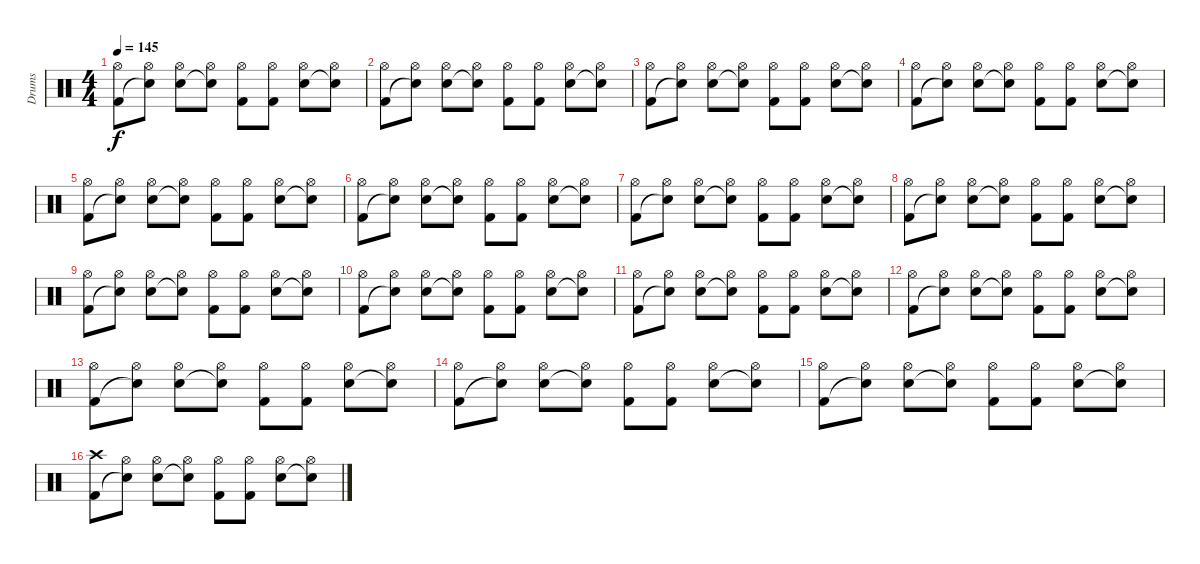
\track ("Drums" "Drums") {instrument percussion}
\staff {score}
\articulation defaults
\ts (4 4)
\tempo 145
\clef neutral
\ks c
("Hi-Hat (open)" "Kick (hit) 2").8{dy f} ("Hi-Hat (open)" "Snare (hit)"{t}).8 ("Hi-Hat (open)" "Electric Snare (hit)").8 ("Hi-Hat (open)" "Snare (hit)"{t}).8 ("Hi-Hat (open)" "Kick (hit) 2").8 ("Hi-Hat (open)" "Kick (hit) 2").8 ("Hi-Hat (open)" "Electric Snare (hit)").8 ("Hi-Hat (open)" "Snare (hit)"{t}).8 |
("Hi-Hat (open)" "Kick (hit) 2").8 ("Hi-Hat (open)" "Snare (hit)"{t}).8 ("Hi-Hat (open)" "Electric Snare (hit)").8 ("Hi-Hat (open)" "Snare (hit)"{t}).8 ("Hi-Hat (open)" "Kick (hit) 2").8 ("Hi-Hat (open)" "Kick (hit) 2").8 ("Hi-Hat (open)" "Electric Snare (hit)").8 ("Hi-Hat (open)" "Snare (hit)"{t}).8 |
("Hi-Hat (open)" "Kick (hit) 2").8 ("Hi-Hat (open)" "Snare (hit)"{t}).8 ("Hi-Hat (open)" "Electric Snare (hit)").8 ("Hi-Hat (open)" "Snare (hit)"{t}).8 ("Hi-Hat (open)" "Kick (hit) 2").8 ("Hi-Hat (open)" "Kick (hit) 2").8 ("Hi-Hat (open)" "Electric Snare (hit)").8 ("Hi-Hat (open)" "Snare (hit)"{t}).8 |
("Hi-Hat (open)" "Kick (hit) 2").8 ("Hi-Hat (open)" "Snare (hit)"{t}).8 ("Hi-Hat (open)" "Electric Snare (hit)").8 ("Hi-Hat (open)" "Snare (hit)"{t}).8 ("Hi-Hat (open)" "Kick (hit) 2").8 ("Hi-Hat (open)" "Kick (hit) 2").8 ("Hi-Hat (open)" "Electric Snare (hit)").8 ("Hi-Hat (open)" "Snare (hit)"{t}).8 |
("Hi-Hat (open)" "Kick (hit) 2").8 ("Hi-Hat (open)" "Snare (hit)"{t}).8 ("Hi-Hat (open)" "Electric Snare (hit)").8 ("Hi-Hat (open)" "Snare (hit)"{t}).8 ("Hi-Hat (open)" "Kick (hit) 2").8 ("Hi-Hat (open)" "Kick (hit) 2").8 ("Hi-Hat (open)" "Electric Snare (hit)").8 ("Hi-Hat (open)" "Snare (hit)"{t}).8 |
("Hi-Hat (open)" "Kick (hit) 2").8 ("Hi-Hat (open)" "Snare (hit)"{t}).8 ("Hi-Hat (open)" "Electric Snare (hit)").8 ("Hi-Hat (open)" "Snare (hit)"{t}).8 ("Hi-Hat (open)" "Kick (hit) 2").8 ("Hi-Hat (open)" "Kick (hit) 2").8 ("Hi-Hat (open)" "Electric Snare (hit)").8 ("Hi-Hat (open)" "Snare (hit)"{t}).8 |
("Hi-Hat (open)" "Kick (hit) 2").8 ("Hi-Hat (open)" "Snare (hit)"{t}).8 ("Hi-Hat (open)" "Electric Snare (hit)").8 ("Hi-Hat (open)" "Snare (hit)"{t}).8 ("Hi-Hat (open)" "Kick (hit) 2").8 ("Hi-Hat (open)" "Kick (hit) 2").8 ("Hi-Hat (open)" "Electric Snare (hit)").8 ("Hi-Hat (open)" "Snare (hit)"{t}).8 |
("Hi-Hat (open)" "Kick (hit) 2").8 ("Hi-Hat (open)" "Snare (hit)"{t}).8 ("Hi-Hat (open)" "Electric Snare (hit)").8 ("Hi-Hat (open)" "Snare (hit)"{t}).8 ("Hi-Hat (open)" "Kick (hit) 2").8 ("Hi-Hat (open)" "Kick (hit) 2").8 ("Hi-Hat (open)" "Electric Snare (hit)").8 ("Hi-Hat (open)" "Snare (hit)"{t}).8 |
("Hi-Hat (open)" "Kick (hit) 2").8 ("Hi-Hat (open)" "Snare (hit)"{t}).8 ("Hi-Hat (open)" "Electric Snare (hit)").8 ("Hi-Hat (open)" "Snare (hit)"{t}).8 ("Hi-Hat (open)" "Kick (hit) 2").8 ("Hi-Hat (open)" "Kick (hit) 2").8 ("Hi-Hat (open)" "Electric Snare (hit)").8 ("Hi-Hat (open)" "Snare (hit)"{t}).8 |
("Hi-Hat (open)" "Kick (hit) 2").8 ("Hi-Hat (open)" "Snare (hit)"{t}).8 ("Hi-Hat (open)" "Electric Snare (hit)").8 ("Hi-Hat (open)" "Snare (hit)"{t}).8 ("Hi-Hat (open)" "Kick (hit) 2").8 ("Hi-Hat (open)" "Kick (hit) 2").8 ("Hi-Hat (open)" "Electric Snare (hit)").8 ("Hi-Hat (open)" "Snare (hit)"{t}).8 |
("Hi-Hat (open)" "Kick (hit) 2").8 ("Hi-Hat (open)" "Snare (hit)"{t}).8 ("Hi-Hat (open)" "Electric Snare (hit)").8 ("Hi-Hat (open)" "Snare (hit)"{t}).8 ("Hi-Hat (open)" "Kick (hit) 2").8 ("Hi-Hat (open)" "Kick (hit) 2").8 ("Hi-Hat (open)" "Electric Snare (hit)").8 ("Hi-Hat (open)" "Snare (hit)"{t}).8 |
("Hi-Hat (open)" "Kick (hit) 2").8 ("Hi-Hat (open)" "Snare (hit)"{t}).8 ("Hi-Hat (open)" "Electric Snare (hit)").8 ("Hi-Hat (open)" "Snare (hit)"{t}).8 ("Hi-Hat (open)" "Kick (hit) 2").8 ("Hi-Hat (open)" "Kick (hit) 2").8 ("Hi-Hat (open)" "Electric Snare (hit)").8 ("Hi-Hat (open)" "Snare (hit)"{t}).8 |
("Hi-Hat (open)" "Kick (hit) 2").8 ("Hi-Hat (open)" "Snare (hit)"{t}).8 ("Hi-Hat (open)" "Electric Snare (hit)").8 ("Hi-Hat (open)" "Snare (hit)"{t}).8 ("Hi-Hat (open)" "Kick (hit) 2").8 ("Hi-Hat (open)" "Kick (hit) 2").8 ("Hi-Hat (open)" "Electric Snare (hit)").8 ("Hi-Hat (open)" "Snare (hit)"{t}).8 |
("Hi-Hat (open)" "Kick (hit) 2").8 ("Hi-Hat (open)" "Snare (hit)"{t}).8 ("Hi-Hat (open)" "Electric Snare (hit)").8 ("Hi-Hat (open)" "Snare (hit)"{t}).8 ("Hi-Hat (open)" "Kick (hit) 2").8 ("Hi-Hat (open)" "Kick (hit) 2").8 ("Hi-Hat (open)" "Electric Snare (hit)").8 ("Hi-Hat (open)" "Snare (hit)"{t}).8 |
("Hi-Hat (open)" "Kick (hit) 2").8 ("Hi-Hat (open)" "Snare (hit)"{t}).8 ("Hi-Hat (open)" "Electric Snare (hit)").8 ("Hi-Hat (open)" "Snare (hit)"{t}).8 ("Hi-Hat (open)" "Kick (hit) 2").8 ("Hi-Hat (open)" "Kick (hit) 2").8 ("Hi-Hat (open)" "Electric Snare (hit)").8 ("Hi-Hat (open)" "Snare (hit)"{t}).8 |
("Crash high (hit)" "Kick (hit) 2").8 ("Hi-Hat (open)" "Snare (hit)"{t}).8 ("Hi-Hat (open)" "Electric Snare (hit)").8 ("Hi-Hat (open)" "Snare (hit)"{t}).8 ("Hi-Hat (open)" "Kick (hit) 2").8 ("Hi-Hat (open)" "Kick (hit) 2").8 ("Hi-Hat (open)" "Electric Snare (hit)").8 ("Hi-Hat (open)" "Snare (hit)"{t}).8
